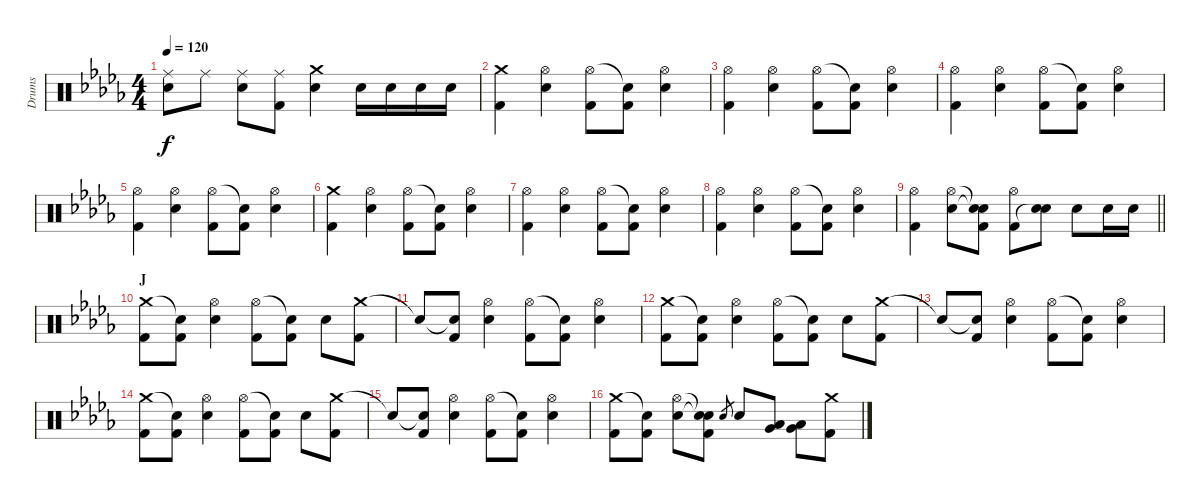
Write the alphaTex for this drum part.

\track ("Drums" "Drums") {instrument percussion}
\staff {score}
\articulation defaults
\ts (4 4)
\tempo 120
\clef neutral
\ks db
("Ride (middle)" "Electric Snare (hit)").8{dy f} "Ride (middle)".8 ("Ride (middle)" "Electric Snare (hit)").8 ("Ride (middle)" "Kick (hit) 2").8 ("Crash medium (hit)" "Electric Snare (hit)").4 "Electric Snare (hit)".16 "Electric Snare (hit)".16 "Electric Snare (hit)".16 "Electric Snare (hit)".16 |
("Crash medium (hit)" "Kick (hit) 2").4 ("Hi-Hat (open)" "Electric Snare (hit)").4 ("Hi-Hat (open)" "Kick (hit) 2").8 ("Snare (hit)"{t} "Kick (hit) 2").8 ("Hi-Hat (open)" "Electric Snare (hit)").4 |
("Hi-Hat (open)" "Kick (hit) 2").4 ("Hi-Hat (open)" "Electric Snare (hit)").4 ("Hi-Hat (open)" "Kick (hit) 2").8 ("Snare (hit)"{t} "Kick (hit) 2").8 ("Hi-Hat (open)" "Electric Snare (hit)").4 |
("Hi-Hat (open)" "Kick (hit) 2").4 ("Hi-Hat (open)" "Electric Snare (hit)").4 ("Hi-Hat (open)" "Kick (hit) 2").8 ("Snare (hit)"{t} "Kick (hit) 2").8 ("Hi-Hat (open)" "Electric Snare (hit)").4 |
("Hi-Hat (open)" "Kick (hit) 2").4 ("Hi-Hat (open)" "Electric Snare (hit)").4 ("Hi-Hat (open)" "Kick (hit) 2").8 ("Snare (hit)"{t} "Kick (hit) 2").8 ("Hi-Hat (open)" "Electric Snare (hit)").4 |
("Crash medium (hit)" "Kick (hit) 2").4 ("Hi-Hat (open)" "Electric Snare (hit)").4 ("Hi-Hat (open)" "Kick (hit) 2").8 ("Snare (hit)"{t} "Kick (hit) 2").8 ("Hi-Hat (open)" "Electric Snare (hit)").4 |
("Hi-Hat (open)" "Kick (hit) 2").4 ("Hi-Hat (open)" "Electric Snare (hit)").4 ("Hi-Hat (open)" "Kick (hit) 2").8 ("Snare (hit)"{t} "Kick (hit) 2").8 ("Hi-Hat (open)" "Electric Snare (hit)").4 |
("Hi-Hat (open)" "Kick (hit) 2").4 ("Hi-Hat (open)" "Electric Snare (hit)").4 ("Hi-Hat (open)" "Kick (hit) 2").8 ("Snare (hit)"{t} "Kick (hit) 2").8 ("Hi-Hat (open)" "Electric Snare (hit)").4 |
\barLineRight lightlight
("Hi-Hat (open)" "Kick (hit) 2").4 ("Hi-Hat (open)" "Electric Snare (hit)").8 ("Snare (hit)"{t} "Snare (hit)"{t} "Kick (hit) 2").8 ("Hi-Hat (open)" "Kick (hit) 2").8 ("Electric Snare (hit)" "Snare (hit)"{t}).8 "Electric Snare (hit)".8 "Electric Snare (hit)".16 "Electric Snare (hit)".16 |
\section ("" "J")
("Crash medium (hit)" "Kick (hit) 2").8 ("Snare (hit)"{t} "Kick (hit) 2").8 ("Hi-Hat (open)" "Electric Snare (hit)").4 ("Hi-Hat (open)" "Kick (hit) 2").8 ("Snare (hit)"{t} "Kick (hit) 2").8 "Electric Snare (hit)".8 ("Crash medium (hit)" "Kick (hit) 2").8 |
"Snare (hit)"{t}.8 ("Snare (hit)"{t} "Kick (hit) 2").8 ("Hi-Hat (open)" "Electric Snare (hit)").4 ("Hi-Hat (open)" "Kick (hit) 2").8 ("Snare (hit)"{t} "Kick (hit) 2").8 ("Hi-Hat (open)" "Electric Snare (hit)").4 |
("Crash medium (hit)" "Kick (hit) 2").8 ("Snare (hit)"{t} "Kick (hit) 2").8 ("Hi-Hat (open)" "Electric Snare (hit)").4 ("Hi-Hat (open)" "Kick (hit) 2").8 ("Snare (hit)"{t} "Kick (hit) 2").8 "Electric Snare (hit)".8 ("Crash medium (hit)" "Kick (hit) 2").8 |
"Snare (hit)"{t}.8 ("Snare (hit)"{t} "Kick (hit) 2").8 ("Hi-Hat (open)" "Electric Snare (hit)").4 ("Hi-Hat (open)" "Kick (hit) 2").8 ("Snare (hit)"{t} "Kick (hit) 2").8 ("Hi-Hat (open)" "Electric Snare (hit)").4 |
("Crash medium (hit)" "Kick (hit) 2").8 ("Snare (hit)"{t} "Kick (hit) 2").8 ("Hi-Hat (open)" "Electric Snare (hit)").4 ("Hi-Hat (open)" "Kick (hit) 2").8 ("Snare (hit)"{t} "Kick (hit) 2").8 "Electric Snare (hit)".8 ("Crash medium (hit)" "Kick (hit) 2").8 |
"Snare (hit)"{t}.8 ("Snare (hit)"{t} "Kick (hit) 2").8 ("Hi-Hat (open)" "Electric Snare (hit)").4 ("Hi-Hat (open)" "Kick (hit) 2").8 ("Snare (hit)"{t} "Kick (hit) 2").8 ("Hi-Hat (open)" "Electric Snare (hit)").4 |
("Crash medium (hit)" "Kick (hit) 2").8 ("Snare (hit)"{t} "Kick (hit) 2").8 ("Hi-Hat (open)" "Electric Snare (hit)").8 ("Snare (hit)"{t} "Snare (hit)"{t} "Kick (hit) 2").8 "Electric Snare (hit)".8{gr} "Electric Snare (hit)".8 ("Low Tom (hit)" "Very Low Tom (hit)").8 ("Low Tom (hit)" "Very Low Tom (hit)").8 ("Crash medium (hit)" "Kick (hit) 2").8
